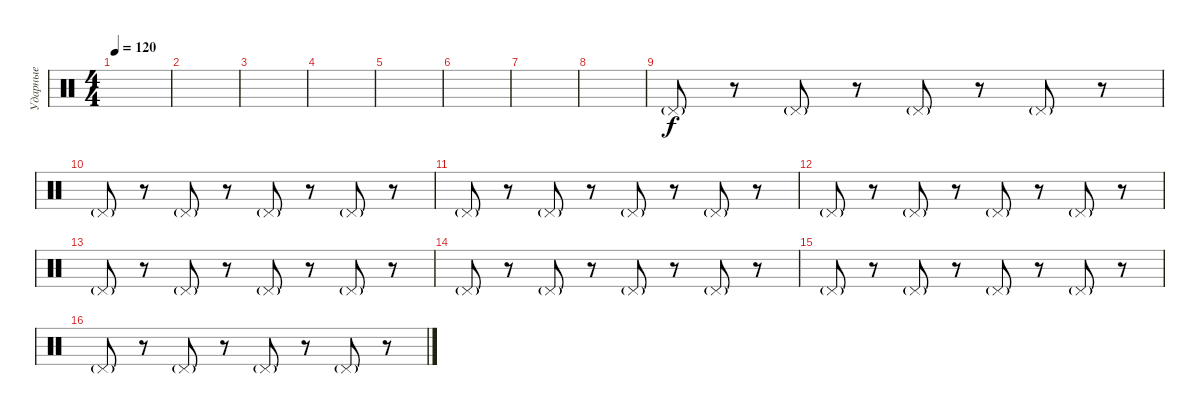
\track ("Ударные" "Ударные") {instrument percussion}
\staff {score}
\articulation defaults
\ts (4 4)
\tempo 120
\clef neutral
\ks c
|
|
|
|
|
|
|
|
"Pedal Hi-Hat (hit)"{g}.8 r.8 "Pedal Hi-Hat (hit)"{g}.8 r.8 "Pedal Hi-Hat (hit)"{g}.8 r.8 "Pedal Hi-Hat (hit)"{g}.8 r.8 |
"Pedal Hi-Hat (hit)"{g}.8 r.8 "Pedal Hi-Hat (hit)"{g}.8 r.8 "Pedal Hi-Hat (hit)"{g}.8 r.8 "Pedal Hi-Hat (hit)"{g}.8 r.8 |
"Pedal Hi-Hat (hit)"{g}.8 r.8 "Pedal Hi-Hat (hit)"{g}.8 r.8 "Pedal Hi-Hat (hit)"{g}.8 r.8 "Pedal Hi-Hat (hit)"{g}.8 r.8 |
"Pedal Hi-Hat (hit)"{g}.8 r.8 "Pedal Hi-Hat (hit)"{g}.8 r.8 "Pedal Hi-Hat (hit)"{g}.8 r.8 "Pedal Hi-Hat (hit)"{g}.8 r.8 |
"Pedal Hi-Hat (hit)"{g}.8 r.8 "Pedal Hi-Hat (hit)"{g}.8 r.8 "Pedal Hi-Hat (hit)"{g}.8 r.8 "Pedal Hi-Hat (hit)"{g}.8 r.8 |
"Pedal Hi-Hat (hit)"{g}.8 r.8 "Pedal Hi-Hat (hit)"{g}.8 r.8 "Pedal Hi-Hat (hit)"{g}.8 r.8 "Pedal Hi-Hat (hit)"{g}.8 r.8 |
"Pedal Hi-Hat (hit)"{g}.8 r.8 "Pedal Hi-Hat (hit)"{g}.8 r.8 "Pedal Hi-Hat (hit)"{g}.8 r.8 "Pedal Hi-Hat (hit)"{g}.8 r.8 |
"Pedal Hi-Hat (hit)"{g}.8 r.8 "Pedal Hi-Hat (hit)"{g}.8 r.8 "Pedal Hi-Hat (hit)"{g}.8 r.8 "Pedal Hi-Hat (hit)"{g}.8 r.8
